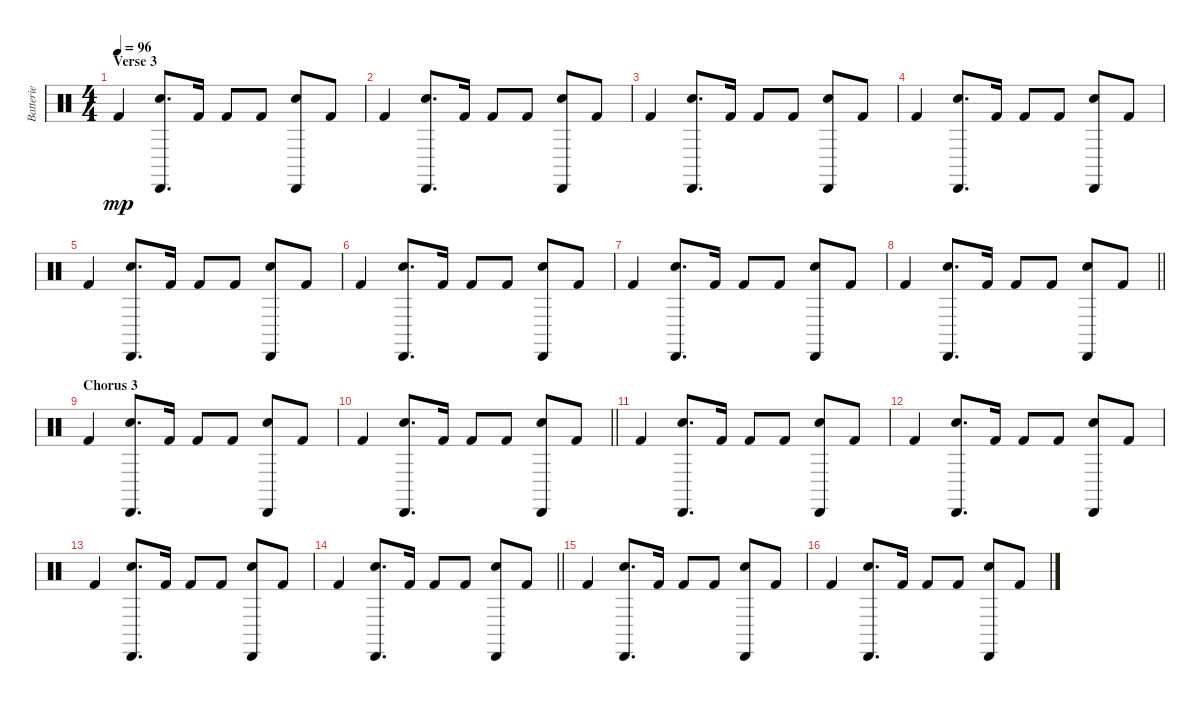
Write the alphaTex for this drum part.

\track ("Batterie" "Batterie") {instrument percussion}
\staff {score}
\articulation defaults
\ts (4 4)
\section ("" "Verse 3")
\tempo 96
\clef neutral
\ks c "Kick (hit) 2".4{dy mp}
("Electric Snare (hit)" "Cabasa (hit)").8{d} "Kick (hit) 2".16 "Kick (hit) 2".8 "Kick (hit) 2".8 ("Cabasa (hit)" "Electric Snare (hit)").8 "Kick (hit) 2".8 |
"Kick (hit) 2".4 ("Electric Snare (hit)" "Cabasa (hit)").8{d} "Kick (hit) 2".16 "Kick (hit) 2".8 "Kick (hit) 2".8 ("Cabasa (hit)" "Electric Snare (hit)").8 "Kick (hit) 2".8 |
"Kick (hit) 2".4 ("Electric Snare (hit)" "Cabasa (hit)").8{d} "Kick (hit) 2".16 "Kick (hit) 2".8 "Kick (hit) 2".8 ("Cabasa (hit)" "Electric Snare (hit)").8 "Kick (hit) 2".8 |
"Kick (hit) 2".4 ("Electric Snare (hit)" "Cabasa (hit)").8{d} "Kick (hit) 2".16 "Kick (hit) 2".8 "Kick (hit) 2".8 ("Cabasa (hit)" "Electric Snare (hit)").8 "Kick (hit) 2".8 |
"Kick (hit) 2".4 ("Electric Snare (hit)" "Cabasa (hit)").8{d} "Kick (hit) 2".16 "Kick (hit) 2".8 "Kick (hit) 2".8 ("Cabasa (hit)" "Electric Snare (hit)").8 "Kick (hit) 2".8 |
"Kick (hit) 2".4 ("Electric Snare (hit)" "Cabasa (hit)").8{d} "Kick (hit) 2".16 "Kick (hit) 2".8 "Kick (hit) 2".8 ("Cabasa (hit)" "Electric Snare (hit)").8 "Kick (hit) 2".8 |
"Kick (hit) 2".4 ("Electric Snare (hit)" "Cabasa (hit)").8{d} "Kick (hit) 2".16 "Kick (hit) 2".8 "Kick (hit) 2".8 ("Cabasa (hit)" "Electric Snare (hit)").8 "Kick (hit) 2".8 |
\barLineRight lightlight "Kick (hit) 2".4
("Electric Snare (hit)" "Cabasa (hit)").8{d} "Kick (hit) 2".16 "Kick (hit) 2".8 "Kick (hit) 2".8 ("Cabasa (hit)" "Electric Snare (hit)").8 "Kick (hit) 2".8 |
\section ("" "Chorus 3")
"Kick (hit) 2".4 ("Electric Snare (hit)" "Cabasa (hit)").8{d} "Kick (hit) 2".16 "Kick (hit) 2".8 "Kick (hit) 2".8 ("Cabasa (hit)" "Electric Snare (hit)").8 "Kick (hit) 2".8 |
\barLineRight lightlight "Kick (hit) 2".4
("Electric Snare (hit)" "Cabasa (hit)").8{d} "Kick (hit) 2".16 "Kick (hit) 2".8 "Kick (hit) 2".8 ("Cabasa (hit)" "Electric Snare (hit)").8 "Kick (hit) 2".8 |
"Kick (hit) 2".4 ("Electric Snare (hit)" "Cabasa (hit)").8{d} "Kick (hit) 2".16 "Kick (hit) 2".8 "Kick (hit) 2".8 ("Cabasa (hit)" "Electric Snare (hit)").8 "Kick (hit) 2".8 |
"Kick (hit) 2".4 ("Electric Snare (hit)" "Cabasa (hit)").8{d} "Kick (hit) 2".16 "Kick (hit) 2".8 "Kick (hit) 2".8 ("Cabasa (hit)" "Electric Snare (hit)").8 "Kick (hit) 2".8 |
"Kick (hit) 2".4 ("Electric Snare (hit)" "Cabasa (hit)").8{d} "Kick (hit) 2".16 "Kick (hit) 2".8 "Kick (hit) 2".8 ("Cabasa (hit)" "Electric Snare (hit)").8 "Kick (hit) 2".8 |
\barLineRight lightlight "Kick (hit) 2".4
("Electric Snare (hit)" "Cabasa (hit)").8{d} "Kick (hit) 2".16 "Kick (hit) 2".8 "Kick (hit) 2".8 ("Cabasa (hit)" "Electric Snare (hit)").8 "Kick (hit) 2".8 |
"Kick (hit) 2".4 ("Electric Snare (hit)" "Cabasa (hit)").8{d} "Kick (hit) 2".16 "Kick (hit) 2".8 "Kick (hit) 2".8 ("Cabasa (hit)" "Electric Snare (hit)").8 "Kick (hit) 2".8 |
"Kick (hit) 2".4 ("Electric Snare (hit)" "Cabasa (hit)").8{d} "Kick (hit) 2".16 "Kick (hit) 2".8 "Kick (hit) 2".8 ("Cabasa (hit)" "Electric Snare (hit)").8 "Kick (hit) 2".8
